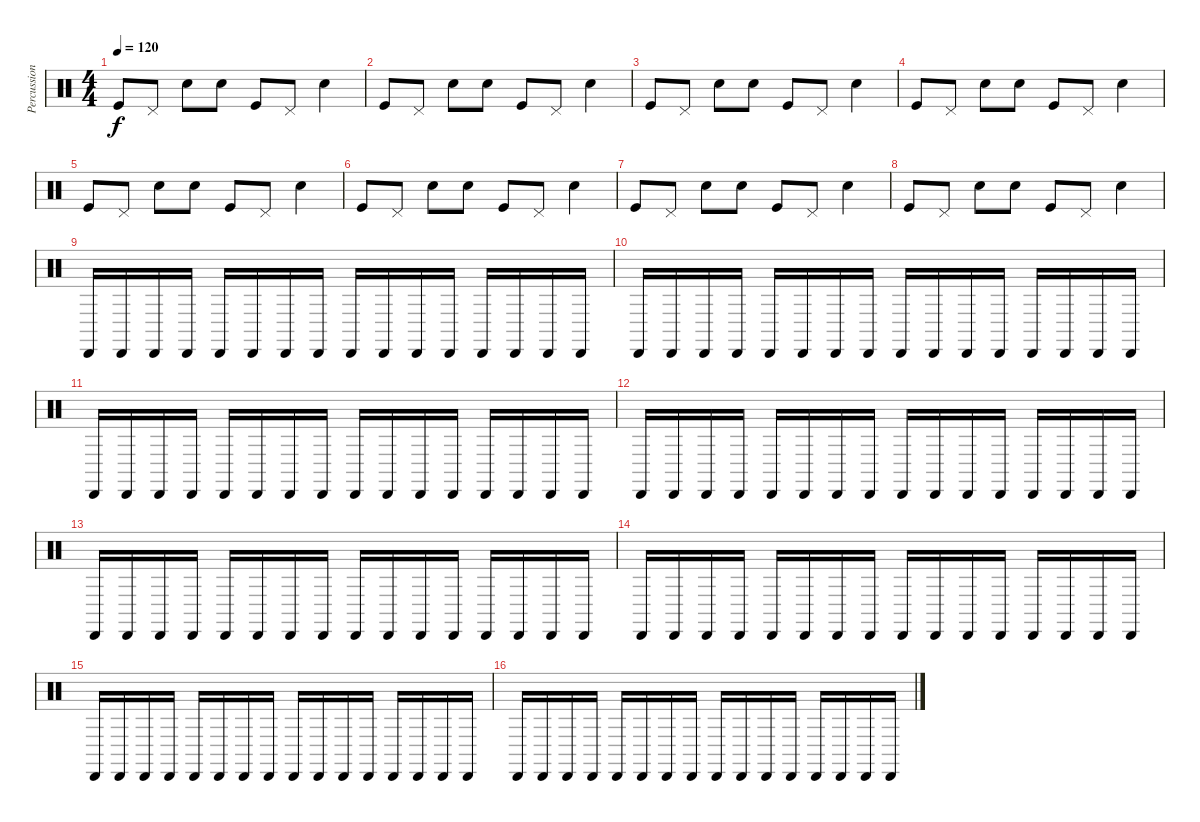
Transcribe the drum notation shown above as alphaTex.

\track ("Percussion" "Percussion") {instrument percussion}
\staff {score}
\articulation defaults
\ts (4 4)
\tempo 120
\clef neutral
\ks c "Kick (hit)".8{dy f} "Pedal Hi-Hat (hit)".8 "Hand Clap (hit)".8 "Hand Clap (hit)".8 "Kick (hit)".8 "Pedal Hi-Hat (hit)".8 "Hand Clap (hit)".4
|
"Kick (hit)".8 "Pedal Hi-Hat (hit)".8 "Hand Clap (hit)".8 "Hand Clap (hit)".8 "Kick (hit)".8 "Pedal Hi-Hat (hit)".8 "Hand Clap (hit)".4 |
"Kick (hit)".8 "Pedal Hi-Hat (hit)".8 "Hand Clap (hit)".8 "Hand Clap (hit)".8 "Kick (hit)".8 "Pedal Hi-Hat (hit)".8 "Hand Clap (hit)".4 |
"Kick (hit)".8 "Pedal Hi-Hat (hit)".8 "Hand Clap (hit)".8 "Hand Clap (hit)".8 "Kick (hit)".8 "Pedal Hi-Hat (hit)".8 "Hand Clap (hit)".4 |
"Kick (hit)".8 "Pedal Hi-Hat (hit)".8 "Hand Clap (hit)".8 "Hand Clap (hit)".8 "Kick (hit)".8 "Pedal Hi-Hat (hit)".8 "Hand Clap (hit)".4 |
"Kick (hit)".8 "Pedal Hi-Hat (hit)".8 "Hand Clap (hit)".8 "Hand Clap (hit)".8 "Kick (hit)".8 "Pedal Hi-Hat (hit)".8 "Hand Clap (hit)".4 |
"Kick (hit)".8 "Pedal Hi-Hat (hit)".8 "Hand Clap (hit)".8 "Hand Clap (hit)".8 "Kick (hit)".8 "Pedal Hi-Hat (hit)".8 "Hand Clap (hit)".4 |
"Kick (hit)".8 "Pedal Hi-Hat (hit)".8 "Hand Clap (hit)".8 "Hand Clap (hit)".8 "Kick (hit)".8 "Pedal Hi-Hat (hit)".8 "Hand Clap (hit)".4 |
"Cabasa (hit)".16 "Cabasa (hit)".16 "Cabasa (hit)".16 "Cabasa (hit)".16 "Cabasa (hit)".16 "Cabasa (hit)".16 "Cabasa (hit)".16 "Cabasa (hit)".16 "Cabasa (hit)".16 "Cabasa (hit)".16 "Cabasa (hit)".16 "Cabasa (hit)".16 "Cabasa (hit)".16 "Cabasa (hit)".16 "Cabasa (hit)".16 "Cabasa (hit)".16 |
"Cabasa (hit)".16 "Cabasa (hit)".16 "Cabasa (hit)".16 "Cabasa (hit)".16 "Cabasa (hit)".16 "Cabasa (hit)".16 "Cabasa (hit)".16 "Cabasa (hit)".16 "Cabasa (hit)".16 "Cabasa (hit)".16 "Cabasa (hit)".16 "Cabasa (hit)".16 "Cabasa (hit)".16 "Cabasa (hit)".16 "Cabasa (hit)".16 "Cabasa (hit)".16 |
"Cabasa (hit)".16 "Cabasa (hit)".16 "Cabasa (hit)".16 "Cabasa (hit)".16 "Cabasa (hit)".16 "Cabasa (hit)".16 "Cabasa (hit)".16 "Cabasa (hit)".16 "Cabasa (hit)".16 "Cabasa (hit)".16 "Cabasa (hit)".16 "Cabasa (hit)".16 "Cabasa (hit)".16 "Cabasa (hit)".16 "Cabasa (hit)".16 "Cabasa (hit)".16 |
"Cabasa (hit)".16 "Cabasa (hit)".16 "Cabasa (hit)".16 "Cabasa (hit)".16 "Cabasa (hit)".16 "Cabasa (hit)".16 "Cabasa (hit)".16 "Cabasa (hit)".16 "Cabasa (hit)".16 "Cabasa (hit)".16 "Cabasa (hit)".16 "Cabasa (hit)".16 "Cabasa (hit)".16 "Cabasa (hit)".16 "Cabasa (hit)".16 "Cabasa (hit)".16 |
"Cabasa (hit)".16 "Cabasa (hit)".16 "Cabasa (hit)".16 "Cabasa (hit)".16 "Cabasa (hit)".16 "Cabasa (hit)".16 "Cabasa (hit)".16 "Cabasa (hit)".16 "Cabasa (hit)".16 "Cabasa (hit)".16 "Cabasa (hit)".16 "Cabasa (hit)".16 "Cabasa (hit)".16 "Cabasa (hit)".16 "Cabasa (hit)".16 "Cabasa (hit)".16 |
"Cabasa (hit)".16 "Cabasa (hit)".16 "Cabasa (hit)".16 "Cabasa (hit)".16 "Cabasa (hit)".16 "Cabasa (hit)".16 "Cabasa (hit)".16 "Cabasa (hit)".16 "Cabasa (hit)".16 "Cabasa (hit)".16 "Cabasa (hit)".16 "Cabasa (hit)".16 "Cabasa (hit)".16 "Cabasa (hit)".16 "Cabasa (hit)".16 "Cabasa (hit)".16 |
"Cabasa (hit)".16 "Cabasa (hit)".16 "Cabasa (hit)".16 "Cabasa (hit)".16 "Cabasa (hit)".16 "Cabasa (hit)".16 "Cabasa (hit)".16 "Cabasa (hit)".16 "Cabasa (hit)".16 "Cabasa (hit)".16 "Cabasa (hit)".16 "Cabasa (hit)".16 "Cabasa (hit)".16 "Cabasa (hit)".16 "Cabasa (hit)".16 "Cabasa (hit)".16 |
"Cabasa (hit)".16 "Cabasa (hit)".16 "Cabasa (hit)".16 "Cabasa (hit)".16 "Cabasa (hit)".16 "Cabasa (hit)".16 "Cabasa (hit)".16 "Cabasa (hit)".16 "Cabasa (hit)".16 "Cabasa (hit)".16 "Cabasa (hit)".16 "Cabasa (hit)".16 "Cabasa (hit)".16 "Cabasa (hit)".16 "Cabasa (hit)".16 "Cabasa (hit)".16
